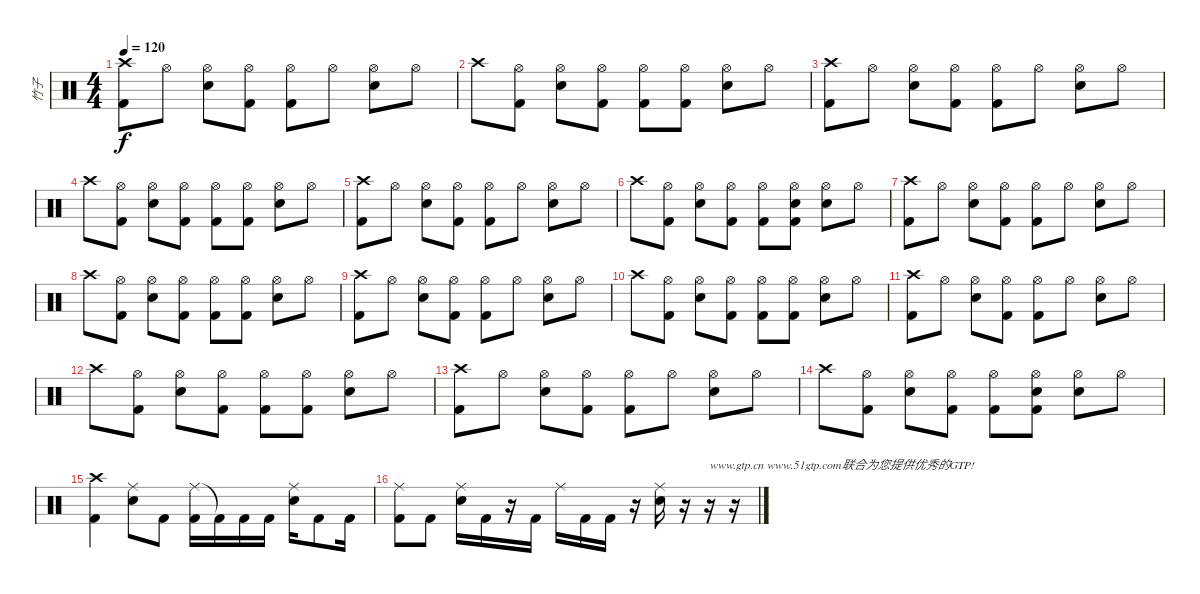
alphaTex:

\track ("竹子" "竹子") {instrument percussion}
\staff {score}
\articulation defaults
\ts (4 4)
\tempo 120
\clef neutral
\ks c
("Crash high (hit)" "Kick (hit) 2").8{dy f} "Hi-Hat (open)".8 ("Hi-Hat (open)" "Electric Snare (hit)").8 ("Hi-Hat (open)" "Kick (hit) 2").8 ("Hi-Hat (open)" "Kick (hit) 2").8 "Hi-Hat (open)".8 ("Hi-Hat (open)" "Electric Snare (hit)").8 "Hi-Hat (open)".8 |
"Crash high (hit)".8 ("Hi-Hat (open)" "Kick (hit) 2").8 ("Hi-Hat (open)" "Electric Snare (hit)").8 ("Hi-Hat (open)" "Kick (hit) 2").8 ("Hi-Hat (open)" "Kick (hit) 2").8 ("Hi-Hat (open)" "Kick (hit) 2").8 ("Hi-Hat (open)" "Electric Snare (hit)").8 "Hi-Hat (open)".8 |
("Crash high (hit)" "Kick (hit) 2").8 "Hi-Hat (open)".8 ("Hi-Hat (open)" "Electric Snare (hit)").8 ("Hi-Hat (open)" "Kick (hit) 2").8 ("Hi-Hat (open)" "Kick (hit) 2").8 "Hi-Hat (open)".8 ("Hi-Hat (open)" "Electric Snare (hit)").8 "Hi-Hat (open)".8 |
"Crash high (hit)".8 ("Hi-Hat (open)" "Kick (hit) 2").8 ("Hi-Hat (open)" "Electric Snare (hit)").8 ("Hi-Hat (open)" "Kick (hit) 2").8 ("Hi-Hat (open)" "Kick (hit) 2").8 ("Hi-Hat (open)" "Kick (hit) 2").8 ("Hi-Hat (open)" "Electric Snare (hit)").8 "Hi-Hat (open)".8 |
("Crash high (hit)" "Kick (hit) 2").8 "Hi-Hat (open)".8 ("Hi-Hat (open)" "Electric Snare (hit)").8 ("Hi-Hat (open)" "Kick (hit) 2").8 ("Hi-Hat (open)" "Kick (hit) 2").8 "Hi-Hat (open)".8 ("Hi-Hat (open)" "Electric Snare (hit)").8 "Hi-Hat (open)".8 |
"Crash high (hit)".8 ("Hi-Hat (open)" "Kick (hit) 2").8 ("Hi-Hat (open)" "Electric Snare (hit)").8 ("Hi-Hat (open)" "Kick (hit) 2").8 ("Hi-Hat (open)" "Kick (hit) 2").8 ("Hi-Hat (open)" "Electric Snare (hit)" "Kick (hit) 2").8 ("Hi-Hat (open)" "Electric Snare (hit)").8 "Hi-Hat (open)".8 |
("Crash high (hit)" "Kick (hit) 2").8 "Hi-Hat (open)".8 ("Hi-Hat (open)" "Electric Snare (hit)").8 ("Hi-Hat (open)" "Kick (hit) 2").8 ("Hi-Hat (open)" "Kick (hit) 2").8 "Hi-Hat (open)".8 ("Hi-Hat (open)" "Electric Snare (hit)").8 "Hi-Hat (open)".8 |
"Crash high (hit)".8 ("Hi-Hat (open)" "Kick (hit) 2").8 ("Hi-Hat (open)" "Electric Snare (hit)").8 ("Hi-Hat (open)" "Kick (hit) 2").8 ("Hi-Hat (open)" "Kick (hit) 2").8 ("Hi-Hat (open)" "Kick (hit) 2").8 ("Hi-Hat (open)" "Electric Snare (hit)").8 "Hi-Hat (open)".8 |
("Crash high (hit)" "Kick (hit) 2").8 "Hi-Hat (open)".8 ("Hi-Hat (open)" "Electric Snare (hit)").8 ("Hi-Hat (open)" "Kick (hit) 2").8 ("Hi-Hat (open)" "Kick (hit) 2").8 "Hi-Hat (open)".8 ("Hi-Hat (open)" "Electric Snare (hit)").8 "Hi-Hat (open)".8 |
"Crash high (hit)".8 ("Hi-Hat (open)" "Kick (hit) 2").8 ("Hi-Hat (open)" "Electric Snare (hit)").8 ("Hi-Hat (open)" "Kick (hit) 2").8 ("Hi-Hat (open)" "Kick (hit) 2").8 ("Hi-Hat (open)" "Kick (hit) 2").8 ("Hi-Hat (open)" "Electric Snare (hit)").8 "Hi-Hat (open)".8 |
("Crash high (hit)" "Kick (hit) 2").8 "Hi-Hat (open)".8 ("Hi-Hat (open)" "Electric Snare (hit)").8 ("Hi-Hat (open)" "Kick (hit) 2").8 ("Hi-Hat (open)" "Kick (hit) 2").8 "Hi-Hat (open)".8 ("Hi-Hat (open)" "Electric Snare (hit)").8 "Hi-Hat (open)".8 |
"Crash high (hit)".8 ("Hi-Hat (open)" "Kick (hit) 2").8 ("Hi-Hat (open)" "Electric Snare (hit)").8 ("Hi-Hat (open)" "Kick (hit) 2").8 ("Hi-Hat (open)" "Kick (hit) 2").8 ("Hi-Hat (open)" "Kick (hit) 2").8 ("Hi-Hat (open)" "Electric Snare (hit)").8 "Hi-Hat (open)".8 |
("Crash high (hit)" "Kick (hit) 2").8 "Hi-Hat (open)".8 ("Hi-Hat (open)" "Electric Snare (hit)").8 ("Hi-Hat (open)" "Kick (hit) 2").8 ("Hi-Hat (open)" "Kick (hit) 2").8 "Hi-Hat (open)".8 ("Hi-Hat (open)" "Electric Snare (hit)").8 "Hi-Hat (open)".8 |
"Crash high (hit)".8 ("Hi-Hat (open)" "Kick (hit) 2").8 ("Hi-Hat (open)" "Electric Snare (hit)").8 ("Hi-Hat (open)" "Kick (hit) 2").8 ("Hi-Hat (open)" "Kick (hit) 2").8 ("Hi-Hat (open)" "Electric Snare (hit)" "Kick (hit) 2").8 ("Hi-Hat (open)" "Electric Snare (hit)").8 "Hi-Hat (open)".8 |
("Crash high (hit)" "Kick (hit) 2").4 ("Ride (middle)" "Electric Snare (hit)").8 "Kick (hit) 2".8 ("Ride (middle)" "Kick (hit) 2").16 "Kick (hit) 2"{t}.16 "Kick (hit) 2".16 "Kick (hit) 2".16 ("Ride (middle)" "Electric Snare (hit)").16 "Kick (hit) 2".8 "Kick (hit) 2".16 |
("Ride (middle)" "Kick (hit) 2").8 "Kick (hit) 2".8 ("Ride (middle)" "Electric Snare (hit)").16 "Kick (hit) 2".16 r.16 "Kick (hit) 2".16 "Ride (middle)".16 "Kick (hit) 2".16 "Kick (hit) 2".16 r.16 ("Ride (middle)" "Electric Snare (hit)").16 r.16 r.16{txt "www.gtp.cn www.51gtp.com联合为您提供优秀的GTP!"} r.16
